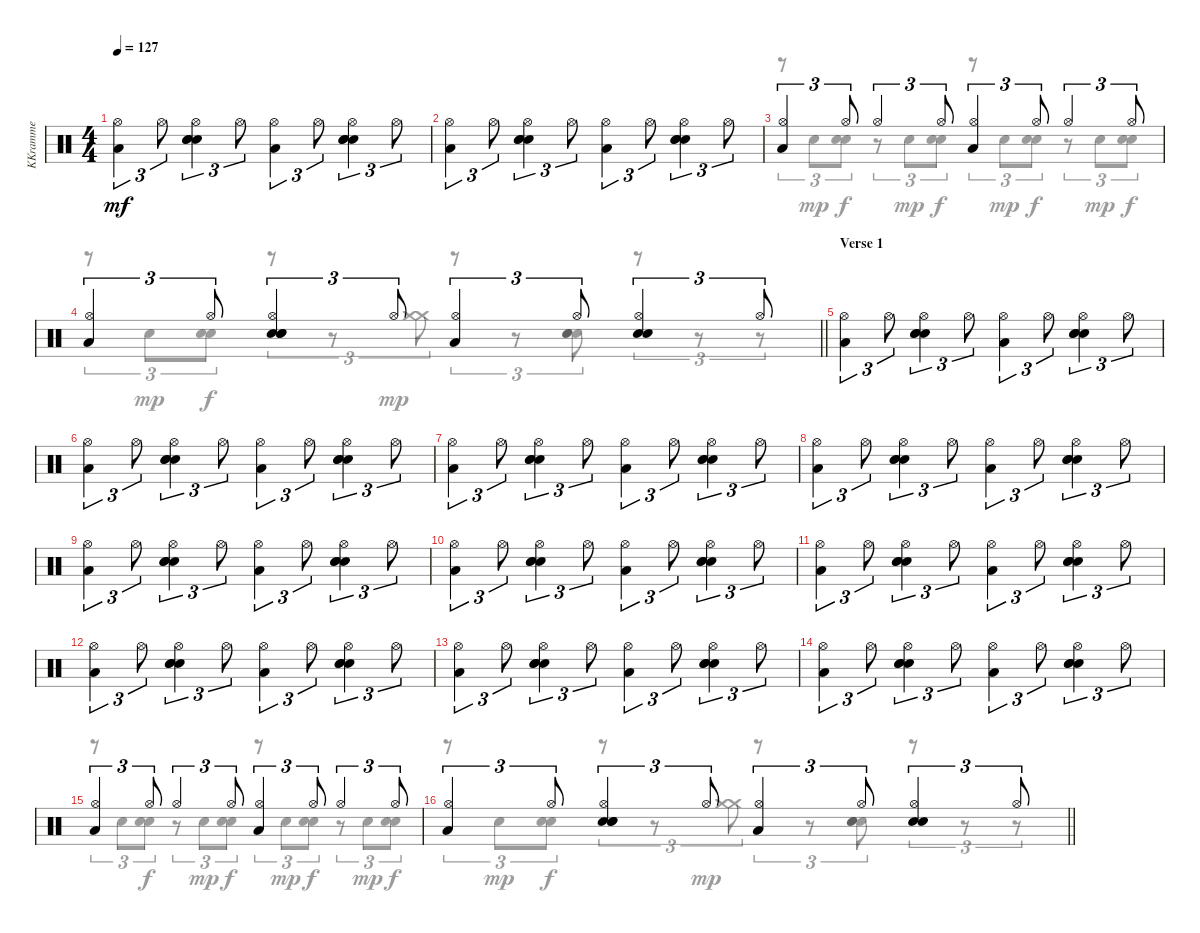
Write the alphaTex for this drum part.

\track ("KKramme" "KKramme") {instrument percussion}
\staff {score}
\articulation defaults
\voice
\ts (4 4)
\tempo 127
\clef neutral
\ks c
("Low Tom (hit)" "Hi-Hat (open)").4{tu (3 2) dy mf} "Hi-Hat (open)".8{tu (3 2)} ("Snare (hit) 2" "Snare (hit) 2" "Snare (hit) 2" "Hi-Hat (open)").4{tu (3 2)} "Hi-Hat (open)".8{tu (3 2)} ("Low Tom (hit)" "Hi-Hat (open)").4{tu (3 2)} "Hi-Hat (open)".8{tu (3 2)} ("Snare (hit) 2" "Snare (hit) 2" "Snare (hit) 2" "Hi-Hat (open)").4{tu (3 2)} "Hi-Hat (open)".8{tu (3 2)} |
("Low Tom (hit)" "Hi-Hat (open)").4{tu (3 2)} "Hi-Hat (open)".8{tu (3 2)} ("Snare (hit) 2" "Snare (hit) 2" "Snare (hit) 2" "Hi-Hat (open)").4{tu (3 2)} "Hi-Hat (open)".8{tu (3 2)} ("Low Tom (hit)" "Hi-Hat (open)").4{tu (3 2)} "Hi-Hat (open)".8{tu (3 2)} ("Snare (hit) 2" "Snare (hit) 2" "Snare (hit) 2" "Hi-Hat (open)").4{tu (3 2)} "Hi-Hat (open)".8{tu (3 2)} |
("Low Tom (hit)" "Hi-Hat (open)").4{tu (3 2)} "Hi-Hat (open)".8{tu (3 2)} "Hi-Hat (open)".4{tu (3 2)} "Hi-Hat (open)".8{tu (3 2)} ("Low Tom (hit)" "Hi-Hat (open)").4{tu (3 2)} "Hi-Hat (open)".8{tu (3 2)} "Hi-Hat (open)".4{tu (3 2)} "Hi-Hat (open)".8{tu (3 2)} |
\barLineRight lightlight
("Low Tom (hit)" "Hi-Hat (open)").4{tu (3 2)} "Hi-Hat (open)".8{tu (3 2)} ("Snare (hit) 2" "Snare (hit) 2" "Snare (hit) 2" "Hi-Hat (open)").4{tu (3 2)} "Hi-Hat (open)".8{tu (3 2)} ("Low Tom (hit)" "Hi-Hat (open)").4{tu (3 2)} "Hi-Hat (open)".8{tu (3 2)} ("Snare (hit) 2" "Snare (hit) 2" "Hi-Hat (open)").4{tu (3 2)} "Hi-Hat (open)".8{tu (3 2)} |
\section ("" "Verse 1")
("Low Tom (hit)" "Hi-Hat (open)").4{tu (3 2)} "Hi-Hat (open)".8{tu (3 2)} ("Snare (hit) 2" "Snare (hit) 2" "Snare (hit) 2" "Hi-Hat (open)").4{tu (3 2)} "Hi-Hat (open)".8{tu (3 2)} ("Low Tom (hit)" "Hi-Hat (open)").4{tu (3 2)} "Hi-Hat (open)".8{tu (3 2)} ("Snare (hit) 2" "Snare (hit) 2" "Snare (hit) 2" "Hi-Hat (open)").4{tu (3 2)} "Hi-Hat (open)".8{tu (3 2)} |
("Low Tom (hit)" "Hi-Hat (open)").4{tu (3 2)} "Hi-Hat (open)".8{tu (3 2)} ("Snare (hit) 2" "Snare (hit) 2" "Snare (hit) 2" "Hi-Hat (open)").4{tu (3 2)} "Hi-Hat (open)".8{tu (3 2)} ("Low Tom (hit)" "Hi-Hat (open)").4{tu (3 2)} "Hi-Hat (open)".8{tu (3 2)} ("Snare (hit) 2" "Snare (hit) 2" "Snare (hit) 2" "Hi-Hat (open)").4{tu (3 2)} "Hi-Hat (open)".8{tu (3 2)} |
("Low Tom (hit)" "Hi-Hat (open)").4{tu (3 2)} "Hi-Hat (open)".8{tu (3 2)} ("Snare (hit) 2" "Snare (hit) 2" "Snare (hit) 2" "Hi-Hat (open)").4{tu (3 2)} "Hi-Hat (open)".8{tu (3 2)} ("Low Tom (hit)" "Hi-Hat (open)").4{tu (3 2)} "Hi-Hat (open)".8{tu (3 2)} ("Snare (hit) 2" "Snare (hit) 2" "Snare (hit) 2" "Hi-Hat (open)").4{tu (3 2)} "Hi-Hat (open)".8{tu (3 2)} |
("Low Tom (hit)" "Hi-Hat (open)").4{tu (3 2)} "Hi-Hat (open)".8{tu (3 2)} ("Snare (hit) 2" "Snare (hit) 2" "Snare (hit) 2" "Hi-Hat (open)").4{tu (3 2)} "Hi-Hat (open)".8{tu (3 2)} ("Low Tom (hit)" "Hi-Hat (open)").4{tu (3 2)} "Hi-Hat (open)".8{tu (3 2)} ("Snare (hit) 2" "Snare (hit) 2" "Snare (hit) 2" "Hi-Hat (open)").4{tu (3 2)} "Hi-Hat (open)".8{tu (3 2)} |
("Low Tom (hit)" "Hi-Hat (open)").4{tu (3 2)} "Hi-Hat (open)".8{tu (3 2)} ("Snare (hit) 2" "Snare (hit) 2" "Snare (hit) 2" "Hi-Hat (open)").4{tu (3 2)} "Hi-Hat (open)".8{tu (3 2)} ("Low Tom (hit)" "Hi-Hat (open)").4{tu (3 2)} "Hi-Hat (open)".8{tu (3 2)} ("Snare (hit) 2" "Snare (hit) 2" "Snare (hit) 2" "Hi-Hat (open)").4{tu (3 2)} "Hi-Hat (open)".8{tu (3 2)} |
("Low Tom (hit)" "Hi-Hat (open)").4{tu (3 2)} "Hi-Hat (open)".8{tu (3 2)} ("Snare (hit) 2" "Snare (hit) 2" "Snare (hit) 2" "Hi-Hat (open)").4{tu (3 2)} "Hi-Hat (open)".8{tu (3 2)} ("Low Tom (hit)" "Hi-Hat (open)").4{tu (3 2)} "Hi-Hat (open)".8{tu (3 2)} ("Snare (hit) 2" "Snare (hit) 2" "Snare (hit) 2" "Hi-Hat (open)").4{tu (3 2)} "Hi-Hat (open)".8{tu (3 2)} |
("Low Tom (hit)" "Hi-Hat (open)").4{tu (3 2)} "Hi-Hat (open)".8{tu (3 2)} ("Snare (hit) 2" "Snare (hit) 2" "Snare (hit) 2" "Hi-Hat (open)").4{tu (3 2)} "Hi-Hat (open)".8{tu (3 2)} ("Low Tom (hit)" "Hi-Hat (open)").4{tu (3 2)} "Hi-Hat (open)".8{tu (3 2)} ("Snare (hit) 2" "Snare (hit) 2" "Snare (hit) 2" "Hi-Hat (open)").4{tu (3 2)} "Hi-Hat (open)".8{tu (3 2)} |
("Low Tom (hit)" "Hi-Hat (open)").4{tu (3 2)} "Hi-Hat (open)".8{tu (3 2)} ("Snare (hit) 2" "Snare (hit) 2" "Snare (hit) 2" "Hi-Hat (open)").4{tu (3 2)} "Hi-Hat (open)".8{tu (3 2)} ("Low Tom (hit)" "Hi-Hat (open)").4{tu (3 2)} "Hi-Hat (open)".8{tu (3 2)} ("Snare (hit) 2" "Snare (hit) 2" "Snare (hit) 2" "Hi-Hat (open)").4{tu (3 2)} "Hi-Hat (open)".8{tu (3 2)} |
("Low Tom (hit)" "Hi-Hat (open)").4{tu (3 2)} "Hi-Hat (open)".8{tu (3 2)} ("Snare (hit) 2" "Snare (hit) 2" "Snare (hit) 2" "Hi-Hat (open)").4{tu (3 2)} "Hi-Hat (open)".8{tu (3 2)} ("Low Tom (hit)" "Hi-Hat (open)").4{tu (3 2)} "Hi-Hat (open)".8{tu (3 2)} ("Snare (hit) 2" "Snare (hit) 2" "Snare (hit) 2" "Hi-Hat (open)").4{tu (3 2)} "Hi-Hat (open)".8{tu (3 2)} |
("Low Tom (hit)" "Hi-Hat (open)").4{tu (3 2)} "Hi-Hat (open)".8{tu (3 2)} ("Snare (hit) 2" "Snare (hit) 2" "Snare (hit) 2" "Hi-Hat (open)").4{tu (3 2)} "Hi-Hat (open)".8{tu (3 2)} ("Low Tom (hit)" "Hi-Hat (open)").4{tu (3 2)} "Hi-Hat (open)".8{tu (3 2)} ("Snare (hit) 2" "Snare (hit) 2" "Snare (hit) 2" "Hi-Hat (open)").4{tu (3 2)} "Hi-Hat (open)".8{tu (3 2)} |
("Low Tom (hit)" "Hi-Hat (open)").4{tu (3 2)} "Hi-Hat (open)".8{tu (3 2)} "Hi-Hat (open)".4{tu (3 2)} "Hi-Hat (open)".8{tu (3 2)} ("Low Tom (hit)" "Hi-Hat (open)").4{tu (3 2)} "Hi-Hat (open)".8{tu (3 2)} "Hi-Hat (open)".4{tu (3 2)} "Hi-Hat (open)".8{tu (3 2)} |
\barLineRight lightlight
("Low Tom (hit)" "Hi-Hat (open)").4{tu (3 2)} "Hi-Hat (open)".8{tu (3 2)} ("Snare (hit) 2" "Snare (hit) 2" "Snare (hit) 2" "Hi-Hat (open)").4{tu (3 2)} "Hi-Hat (open)".8{tu (3 2)} ("Low Tom (hit)" "Hi-Hat (open)").4{tu (3 2)} "Hi-Hat (open)".8{tu (3 2)} ("Snare (hit) 2" "Snare (hit) 2" "Hi-Hat (open)").4{tu (3 2)} "Hi-Hat (open)".8{tu (3 2)}
\voice
\clef neutral
\ottava regular
\simile none
\ks c
|
|
r.8{tu (3 2)} "Snare (hit) 2".8{tu (3 2) dy mp} ("Snare (hit) 2" "Snare (hit) 2").8{tu (3 2) dy f} r.8{tu (3 2)} "Snare (hit) 2".8{tu (3 2) dy mp} ("Snare (hit) 2" "Snare (hit) 2").8{tu (3 2) dy f} r.8{tu (3 2)} "Snare (hit) 2".8{tu (3 2) dy mp} ("Snare (hit) 2" "Snare (hit) 2").8{tu (3 2) dy f} r.8{tu (3 2)} "Snare (hit) 2".8{tu (3 2) dy mp} ("Snare (hit) 2" "Snare (hit) 2").8{tu (3 2) dy f} |
\barLineRight lightlight
r.8{tu (3 2)} "Snare (hit) 2".8{tu (3 2) dy mp} ("Snare (hit) 2" "Snare (hit) 2").8{tu (3 2) dy f} r.8{tu (3 2)} r.8{tu (3 2)} ("Crash medium (hit)" "Crash medium (hit)").8{tu (3 2) dy mp} r.8{tu (3 2)} r.8{tu (3 2)} ("Snare (hit) 2" "Snare (hit) 2" "Snare (hit) 2").8{tu (3 2)} r.8{tu (3 2)} r.8{tu (3 2)} r.8{tu (3 2)} |
|
|
|
|
|
|
|
|
|
|
r.8{tu (3 2)} "Snare (hit) 2".8{tu (3 2)} ("Snare (hit) 2" "Snare (hit) 2").8{tu (3 2) dy f} r.8{tu (3 2)} "Snare (hit) 2".8{tu (3 2) dy mp} ("Snare (hit) 2" "Snare (hit) 2").8{tu (3 2) dy f} r.8{tu (3 2)} "Snare (hit) 2".8{tu (3 2) dy mp} ("Snare (hit) 2" "Snare (hit) 2").8{tu (3 2) dy f} r.8{tu (3 2)} "Snare (hit) 2".8{tu (3 2) dy mp} ("Snare (hit) 2" "Snare (hit) 2").8{tu (3 2) dy f} |
\barLineRight lightlight
r.8{tu (3 2)} "Snare (hit) 2".8{tu (3 2) dy mp} ("Snare (hit) 2" "Snare (hit) 2").8{tu (3 2) dy f} r.8{tu (3 2)} r.8{tu (3 2)} ("Crash medium (hit)" "Crash medium (hit)").8{tu (3 2) dy mp} r.8{tu (3 2)} r.8{tu (3 2)} ("Snare (hit) 2" "Snare (hit) 2" "Snare (hit) 2").8{tu (3 2)} r.8{tu (3 2)} r.8{tu (3 2)} r.8{tu (3 2)}
